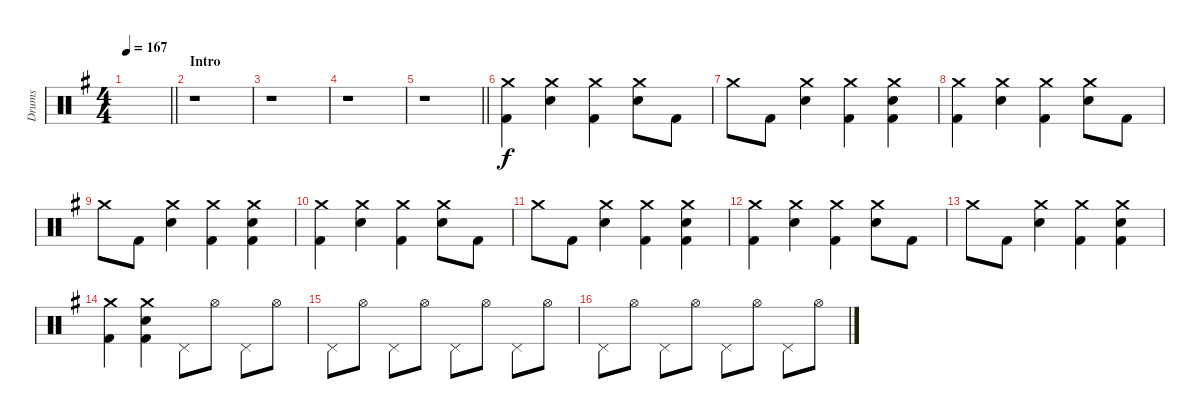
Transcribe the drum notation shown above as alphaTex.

\track ("Drums" "Drums") {instrument percussion}
\staff {score}
\articulation defaults
\ts (4 4)
\tempo 167
\clef neutral
\barLineRight lightlight
\ks eminor
|
\section ("" "Intro")
r.1 |
r.1 |
r.1 |
\barLineRight lightlight
r.1 |
("Crash medium (hit)" "Kick (hit) 2").4 ("Crash medium (hit)" "Snare (hit) 2").4 ("Crash medium (hit)" "Kick (hit) 2").4 ("Crash medium (hit)" "Snare (hit) 2").8 "Kick (hit) 2".8 |
"Crash medium (hit)".8 "Kick (hit) 2".8 ("Crash medium (hit)" "Snare (hit) 2").4 ("Crash medium (hit)" "Kick (hit) 2").4 ("Crash medium (hit)" "Snare (hit) 2" "Kick (hit) 2").4 |
("Crash medium (hit)" "Kick (hit) 2").4 ("Crash medium (hit)" "Snare (hit) 2").4 ("Crash medium (hit)" "Kick (hit) 2").4 ("Crash medium (hit)" "Snare (hit) 2").8 "Kick (hit) 2".8 |
"Crash medium (hit)".8 "Kick (hit) 2".8 ("Crash medium (hit)" "Snare (hit) 2").4 ("Crash medium (hit)" "Kick (hit) 2").4 ("Crash medium (hit)" "Snare (hit) 2" "Kick (hit) 2").4 |
("Crash medium (hit)" "Kick (hit) 2").4 ("Crash medium (hit)" "Snare (hit) 2").4 ("Crash medium (hit)" "Kick (hit) 2").4 ("Crash medium (hit)" "Snare (hit) 2").8 "Kick (hit) 2".8 |
"Crash medium (hit)".8 "Kick (hit) 2".8 ("Crash medium (hit)" "Snare (hit) 2").4 ("Crash medium (hit)" "Kick (hit) 2").4 ("Crash medium (hit)" "Snare (hit) 2" "Kick (hit) 2").4 |
("Crash medium (hit)" "Kick (hit) 2").4 ("Crash medium (hit)" "Snare (hit) 2").4 ("Crash medium (hit)" "Kick (hit) 2").4 ("Crash medium (hit)" "Snare (hit) 2").8 "Kick (hit) 2".8 |
"Crash medium (hit)".8 "Kick (hit) 2".8 ("Crash medium (hit)" "Snare (hit) 2").4 ("Crash medium (hit)" "Kick (hit) 2").4 ("Crash medium (hit)" "Snare (hit) 2" "Kick (hit) 2").4 |
("Crash medium (hit)" "Kick (hit) 2").4 ("Crash medium (hit)" "Snare (hit) 2" "Kick (hit) 2").4 "Pedal Hi-Hat (hit)".8 "Hi-Hat (open)".8 "Pedal Hi-Hat (hit)".8 "Hi-Hat (open)".8 |
"Pedal Hi-Hat (hit)".8 "Hi-Hat (open)".8 "Pedal Hi-Hat (hit)".8 "Hi-Hat (open)".8 "Pedal Hi-Hat (hit)".8 "Hi-Hat (open)".8 "Pedal Hi-Hat (hit)".8 "Hi-Hat (open)".8 |
"Pedal Hi-Hat (hit)".8 "Hi-Hat (open)".8 "Pedal Hi-Hat (hit)".8 "Hi-Hat (open)".8 "Pedal Hi-Hat (hit)".8 "Hi-Hat (open)".8 "Pedal Hi-Hat (hit)".8 "Hi-Hat (open)".8
